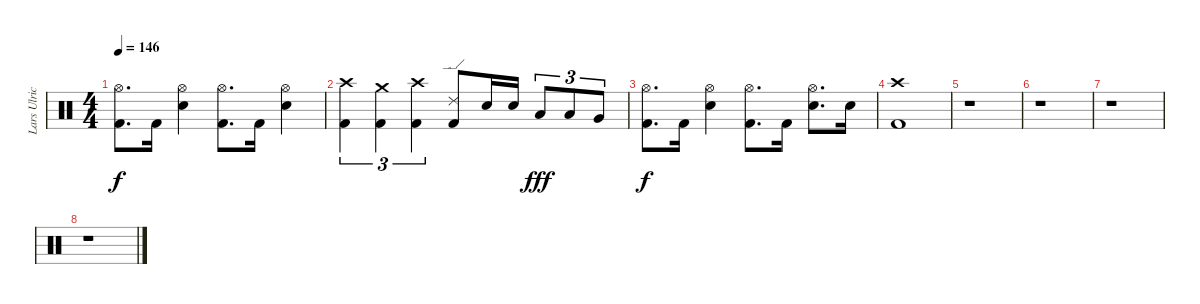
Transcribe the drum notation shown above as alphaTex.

\track ("Lars Ulrich" "Lars Ulric") {instrument percussion}
\staff {score}
\articulation defaults
\ts (4 4)
\tempo 146
\clef neutral
\ks c
("Hi-Hat (open)" "Kick (hit) 2").8{d dy f} "Kick (hit) 2".16 ("Hi-Hat (open)" "Electric Snare (hit)").4 ("Hi-Hat (open)" "Kick (hit) 2").8{d} "Kick (hit) 2".16 ("Hi-Hat (open)" "Electric Snare (hit)").4 |
("Crash high (hit)" "Kick (hit) 2").4{tu (3 2)} ("Crash medium (hit)" "Kick (hit) 2").4{tu (3 2)} ("Crash high (hit)" "Kick (hit) 2").4{tu (3 2)} ("Ride (edge) 2" "Kick (hit) 2").8 "Electric Snare (hit)".16 "Electric Snare (hit)".16 "Low Tom (hit)".8{tu (3 2) dy fff} "Low Tom (hit)".8{tu (3 2)} "Very Low Tom (hit)".8{tu (3 2)} |
("Hi-Hat (open)" "Kick (hit) 2").8{d dy f} "Kick (hit) 2".16 ("Hi-Hat (open)" "Electric Snare (hit)").4 ("Hi-Hat (open)" "Kick (hit) 2").8{d} "Kick (hit) 2".16 ("Hi-Hat (open)" "Electric Snare (hit)").8{d} "Electric Snare (hit)".16 |
("Crash high (hit)" "Kick (hit) 2").1 |
r.1 |
r.1 |
r.1 |
r.1
